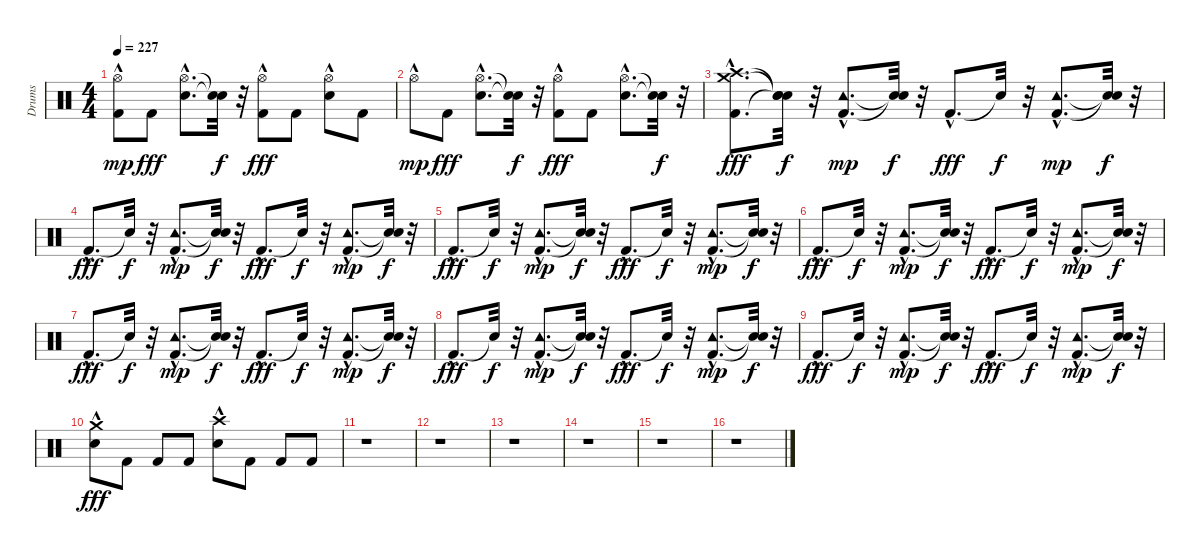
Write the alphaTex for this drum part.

\track ("Drums" "Drums") {instrument percussion}
\staff {score}
\articulation defaults
\ts (4 4)
\tempo 227
\clef neutral
\ks c
("Kick (hit) 2" "Hi-Hat (open)"{hac}).8{dy mp} "Kick (hit) 2".8{dy fff} ("Hi-Hat (open)"{hac} "Snare (hit) 2"{hac}).8{d} ("Snare (hit)"{t} "Snare (hit)"{t}).32{dy f} r.32 ("Hi-Hat (open)"{hac} "Kick (hit) 2").8{dy fff} "Kick (hit) 2".8 ("Hi-Hat (open)"{hac} "Snare (hit) 2"{hac}).8 "Kick (hit) 2".8 |
"Hi-Hat (open)"{hac}.8{dy mp} "Kick (hit) 2".8{dy fff} ("Hi-Hat (open)"{hac} "Snare (hit) 2"{hac}).8{d} ("Snare (hit)"{t} "Snare (hit)"{t}).32{dy f} r.32 ("Hi-Hat (open)"{hac} "Kick (hit) 2").8{dy fff} "Kick (hit) 2".8 ("Hi-Hat (open)"{hac} "Snare (hit) 2"{hac}).8{d} ("Snare (hit)"{t} "Snare (hit)"{t}).32{dy f} r.32 |
("Crash high (hit)"{hac} "Crash medium (hit)"{hac} "Kick (hit) 2"{hac}).8{d dy fff} ("Snare (hit)"{t} "Snare (hit)"{t} "Snare (hit)"{t}).32{dy f} r.32 ("Kick (hit) 2"{hac} "Tambourine (hit)"{hac}).8{d dy mp} ("Snare (hit)"{t} "Snare (hit)"{t}).32{dy f} r.32 "Kick (hit) 2"{hac}.8{d dy fff} "Snare (hit)"{t}.32{dy f} r.32 ("Kick (hit) 2"{hac} "Tambourine (hit)"{hac}).8{d dy mp} ("Snare (hit)"{t} "Snare (hit)"{t}).32{dy f} r.32 |
"Kick (hit) 2"{hac}.8{d dy fff} "Snare (hit)"{t}.32{dy f} r.32 ("Kick (hit) 2"{hac} "Tambourine (hit)"{hac}).8{d dy mp} ("Snare (hit)"{t} "Snare (hit)"{t}).32{dy f} r.32 "Kick (hit) 2"{hac}.8{d dy fff} "Snare (hit)"{t}.32{dy f} r.32 ("Kick (hit) 2"{hac} "Tambourine (hit)"{hac}).8{d dy mp} ("Snare (hit)"{t} "Snare (hit)"{t}).32{dy f} r.32 |
"Kick (hit) 2"{hac}.8{d dy fff} "Snare (hit)"{t}.32{dy f} r.32 ("Kick (hit) 2"{hac} "Tambourine (hit)"{hac}).8{d dy mp} ("Snare (hit)"{t} "Snare (hit)"{t}).32{dy f} r.32 "Kick (hit) 2"{hac}.8{d dy fff} "Snare (hit)"{t}.32{dy f} r.32 ("Kick (hit) 2"{hac} "Tambourine (hit)"{hac}).8{d dy mp} ("Snare (hit)"{t} "Snare (hit)"{t}).32{dy f} r.32 |
"Kick (hit) 2"{hac}.8{d dy fff} "Snare (hit)"{t}.32{dy f} r.32 ("Kick (hit) 2"{hac} "Tambourine (hit)"{hac}).8{d dy mp} ("Snare (hit)"{t} "Snare (hit)"{t}).32{dy f} r.32 "Kick (hit) 2"{hac}.8{d dy fff} "Snare (hit)"{t}.32{dy f} r.32 ("Kick (hit) 2"{hac} "Tambourine (hit)"{hac}).8{d dy mp} ("Snare (hit)"{t} "Snare (hit)"{t}).32{dy f} r.32 |
"Kick (hit) 2"{hac}.8{d dy fff} "Snare (hit)"{t}.32{dy f} r.32 ("Kick (hit) 2"{hac} "Tambourine (hit)"{hac}).8{d dy mp} ("Snare (hit)"{t} "Snare (hit)"{t}).32{dy f} r.32 "Kick (hit) 2"{hac}.8{d dy fff} "Snare (hit)"{t}.32{dy f} r.32 ("Kick (hit) 2"{hac} "Tambourine (hit)"{hac}).8{d dy mp} ("Snare (hit)"{t} "Snare (hit)"{t}).32{dy f} r.32 |
"Kick (hit) 2"{hac}.8{d dy fff} "Snare (hit)"{t}.32{dy f} r.32 ("Kick (hit) 2"{hac} "Tambourine (hit)"{hac}).8{d dy mp} ("Snare (hit)"{t} "Snare (hit)"{t}).32{dy f} r.32 "Kick (hit) 2"{hac}.8{d dy fff} "Snare (hit)"{t}.32{dy f} r.32 ("Kick (hit) 2"{hac} "Tambourine (hit)"{hac}).8{d dy mp} ("Snare (hit)"{t} "Snare (hit)"{t}).32{dy f} r.32 |
"Kick (hit) 2"{hac}.8{d dy fff} "Snare (hit)"{t}.32{dy f} r.32 ("Kick (hit) 2"{hac} "Tambourine (hit)"{hac}).8{d dy mp} ("Snare (hit)"{t} "Snare (hit)"{t}).32{dy f} r.32 "Kick (hit) 2"{hac}.8{d dy fff} "Snare (hit)"{t}.32{dy f} r.32 ("Kick (hit) 2"{hac} "Tambourine (hit)"{hac}).8{d dy mp} ("Snare (hit)"{t} "Snare (hit)"{t}).32{dy f} r.32 |
("Crash medium (hit)"{hac} "Snare (hit) 2"{hac}).8{dy fff} "Kick (hit) 2".8 "Kick (hit) 2".8 "Kick (hit) 2".8 ("Crash high (hit)"{hac} "Snare (hit) 2"{hac}).8 "Kick (hit) 2".8 "Kick (hit) 2".8 "Kick (hit) 2".8 |
r.1 |
r.1 |
r.1 |
r.1 |
r.1 |
r.1
